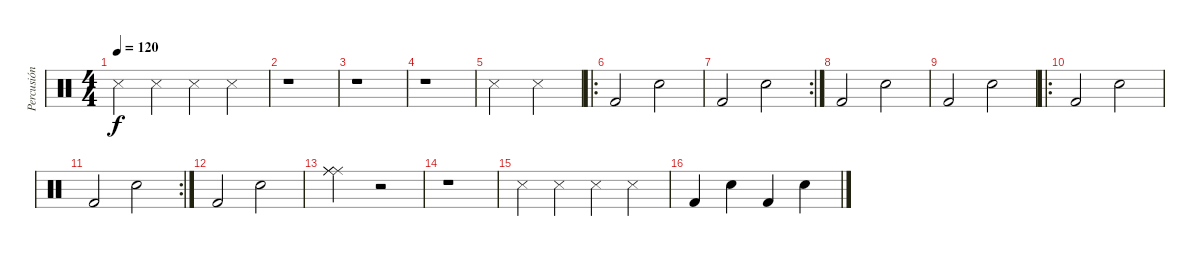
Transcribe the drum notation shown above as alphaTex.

\track ("Percusión" "Percusión") {instrument percussion}
\staff {score}
\articulation defaults
\ts (4 4)
\tempo 120
\clef neutral
\ks c "Metronome (hit)".4{dy f} "Metronome (hit)".4 "Metronome (hit)".4 "Metronome (hit)".4
|
r.1 |
r.1 |
r.1 |
"Metronome (hit)".2 "Metronome (hit)".2 |
\ro "Kick (hit) 2".2 "Snare (hit) 2".2
|
\rc 2 "Kick (hit) 2".2 "Snare (hit) 2".2
|
"Kick (hit) 2".2 "Snare (hit) 2".2 |
"Kick (hit) 2".2 "Snare (hit) 2".2 |
\ro "Kick (hit) 2".2 "Snare (hit) 2".2
|
\rc 2 "Kick (hit) 2".2 "Snare (hit) 2".2
|
"Kick (hit) 2".2 "Snare (hit) 2".2 |
("Ride (middle)" "Ride (middle)" "Ride (middle)").2 r.2 |
r.1 |
"Metronome (hit)".4 "Metronome (hit)".4 "Metronome (hit)".4 "Metronome (hit)".4 |
"Kick (hit) 2".4 "Snare (hit) 2".4 "Kick (hit) 2".4 "Snare (hit) 2".4
